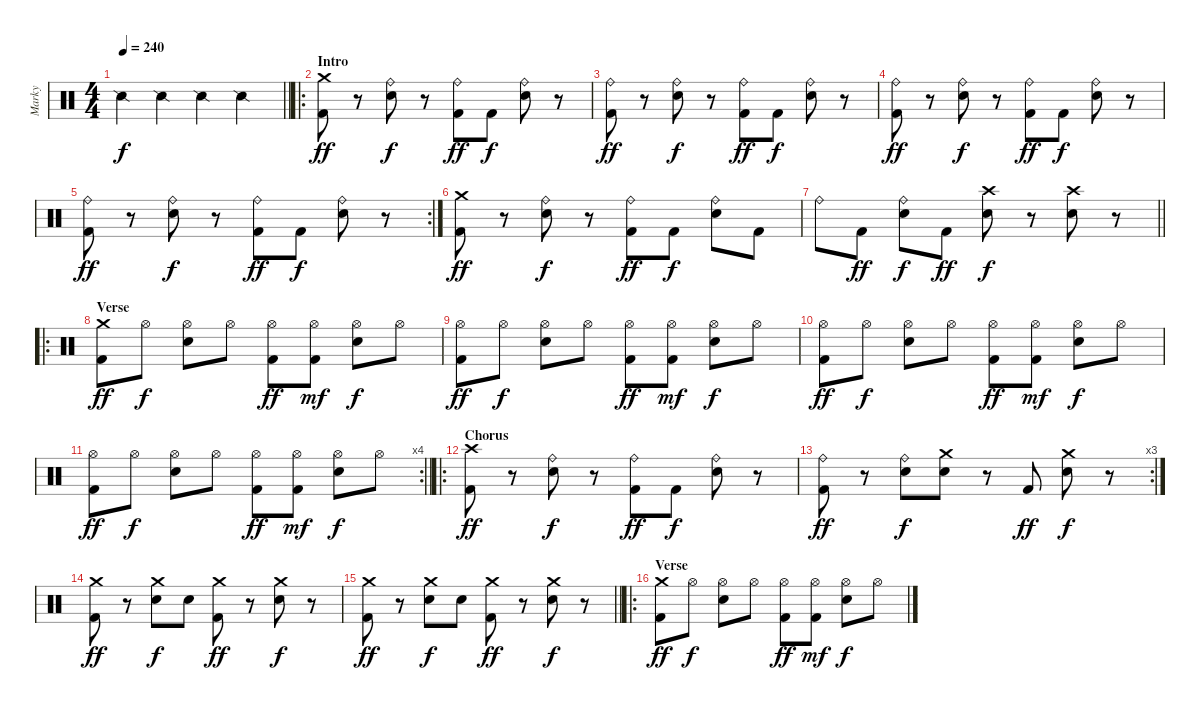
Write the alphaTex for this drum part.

\track ("Marky" "Marky") {instrument percussion}
\staff {score}
\articulation defaults
\ts (4 4)
\tempo 240
\clef neutral
\barLineRight lightlight
\ks c "Snare (side stick) 2".4{dy f} "Snare (side stick) 2".4 "Snare (side stick) 2".4 "Snare (side stick) 2".4
|
\ro
\section ("" "Intro")
("Crash medium (hit)" "Kick (hit) 2").8{dy ff} r.8 ("Ride (bell)" "Snare (hit) 2").8{dy f} r.8 ("Ride (bell)" "Kick (hit) 2").8{dy ff} "Kick (hit) 2".8{dy f} ("Ride (bell)" "Snare (hit) 2").8 r.8 |
("Ride (bell)" "Kick (hit) 2").8{dy ff} r.8 ("Ride (bell)" "Snare (hit) 2").8{dy f} r.8 ("Ride (bell)" "Kick (hit) 2").8{dy ff} "Kick (hit) 2".8{dy f} ("Ride (bell)" "Snare (hit) 2").8 r.8 |
("Ride (bell)" "Kick (hit) 2").8{dy ff} r.8 ("Ride (bell)" "Snare (hit) 2").8{dy f} r.8 ("Ride (bell)" "Kick (hit) 2").8{dy ff} "Kick (hit) 2".8{dy f} ("Ride (bell)" "Snare (hit) 2").8 r.8 |
\rc 2
("Ride (bell)" "Kick (hit) 2").8{dy ff} r.8 ("Ride (bell)" "Snare (hit) 2").8{dy f} r.8 ("Ride (bell)" "Kick (hit) 2").8{dy ff} "Kick (hit) 2".8{dy f} ("Ride (bell)" "Snare (hit) 2").8 r.8 |
("Crash medium (hit)" "Kick (hit) 2").8{dy ff} r.8 ("Ride (bell)" "Snare (hit) 2").8{dy f} r.8 ("Ride (bell)" "Kick (hit) 2").8{dy ff} "Kick (hit) 2".8{dy f} ("Ride (bell)" "Snare (hit) 2").8 "Kick (hit) 2".8 |
\barLineRight lightlight "Ride (bell)".8 "Kick (hit) 2".8{dy ff}
("Ride (bell)" "Snare (hit) 2").8{dy f} "Kick (hit) 2".8{dy ff} ("Crash high (hit)" "Snare (hit) 2").8{dy f} r.8 ("Crash high (hit)" "Snare (hit) 2").8 r.8 |
\ro
\section ("" "Verse")
("Crash medium (hit)" "Kick (hit) 2").8{dy ff} "Hi-Hat (open)".8{dy f} ("Hi-Hat (open)" "Snare (hit) 2").8 "Hi-Hat (open)".8 ("Hi-Hat (open)" "Kick (hit) 2").8{dy ff} ("Hi-Hat (open)" "Kick (hit) 2").8{dy mf} ("Hi-Hat (open)" "Snare (hit) 2").8{dy f} "Hi-Hat (open)".8 |
("Hi-Hat (open)" "Kick (hit) 2").8{dy ff} "Hi-Hat (open)".8{dy f} ("Hi-Hat (open)" "Snare (hit) 2").8 "Hi-Hat (open)".8 ("Hi-Hat (open)" "Kick (hit) 2").8{dy ff} ("Hi-Hat (open)" "Kick (hit) 2").8{dy mf} ("Hi-Hat (open)" "Snare (hit) 2").8{dy f} "Hi-Hat (open)".8 |
("Hi-Hat (open)" "Kick (hit) 2").8{dy ff} "Hi-Hat (open)".8{dy f} ("Hi-Hat (open)" "Snare (hit) 2").8 "Hi-Hat (open)".8 ("Hi-Hat (open)" "Kick (hit) 2").8{dy ff} ("Hi-Hat (open)" "Kick (hit) 2").8{dy mf} ("Hi-Hat (open)" "Snare (hit) 2").8{dy f} "Hi-Hat (open)".8 |
\rc 4
\barLineRight lightlight
("Hi-Hat (open)" "Kick (hit) 2").8{dy ff} "Hi-Hat (open)".8{dy f} ("Hi-Hat (open)" "Snare (hit) 2").8 "Hi-Hat (open)".8 ("Hi-Hat (open)" "Kick (hit) 2").8{dy ff} ("Hi-Hat (open)" "Kick (hit) 2").8{dy mf} ("Hi-Hat (open)" "Snare (hit) 2").8{dy f} "Hi-Hat (open)".8 |
\ro
\section ("" "Chorus")
("Crash high (hit)" "Kick (hit) 2").8{dy ff} r.8 ("Ride (bell)" "Snare (hit) 2").8{dy f} r.8 ("Ride (bell)" "Kick (hit) 2").8{dy ff} "Kick (hit) 2".8{dy f} ("Ride (bell)" "Snare (hit) 2").8 r.8 |
\rc 3
("Ride (bell)" "Kick (hit) 2").8{dy ff} r.8 ("Ride (bell)" "Snare (hit) 2").8{dy f} ("Crash medium (hit)" "Snare (hit) 2").8 r.8 "Kick (hit) 2".8{dy ff} ("Crash medium (hit)" "Snare (hit) 2").8{dy f} r.8 |
("Crash medium (hit)" "Kick (hit) 2").8{dy ff} r.8 ("Crash medium (hit)" "Snare (hit) 2").8{dy f} "Snare (hit) 2".8 ("Crash medium (hit)" "Kick (hit) 2").8{dy ff} r.8 ("Crash medium (hit)" "Snare (hit) 2").8{dy f} r.8 |
\barLineRight lightlight
("Crash medium (hit)" "Kick (hit) 2").8{dy ff} r.8 ("Crash medium (hit)" "Snare (hit) 2").8{dy f} "Snare (hit) 2".8 ("Crash medium (hit)" "Kick (hit) 2").8{dy ff} r.8 ("Crash medium (hit)" "Snare (hit) 2").8{dy f} r.8 |
\ro
\section ("" "Verse")
("Crash medium (hit)" "Kick (hit) 2").8{dy ff} "Hi-Hat (open)".8{dy f} ("Hi-Hat (open)" "Snare (hit) 2").8 "Hi-Hat (open)".8 ("Hi-Hat (open)" "Kick (hit) 2").8{dy ff} ("Hi-Hat (open)" "Kick (hit) 2").8{dy mf} ("Hi-Hat (open)" "Snare (hit) 2").8{dy f} "Hi-Hat (open)".8
